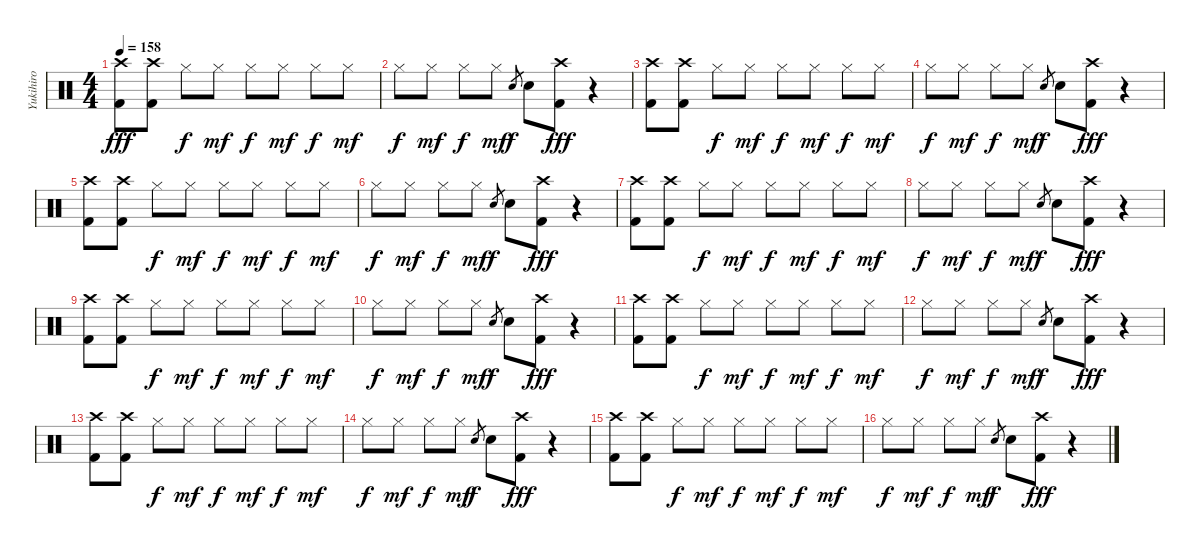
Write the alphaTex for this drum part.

\track ("Yukihiro" "Yukihiro") {instrument percussion}
\staff {score}
\articulation defaults
\ts (4 4)
\tempo 158
\clef neutral
\ks c
("Crash high (hit)" "Kick (hit) 2").8{dy fff} ("Crash high (hit)" "Kick (hit) 2").8 "Hi-Hat (closed)".8{dy f} "Hi-Hat (closed)".8{dy mf} "Hi-Hat (closed)".8{dy f} "Hi-Hat (closed)".8{dy mf} "Hi-Hat (closed)".8{dy f} "Hi-Hat (closed)".8{dy mf} |
"Hi-Hat (closed)".8{dy f} "Hi-Hat (closed)".8{dy mf} "Hi-Hat (closed)".8{dy f} "Hi-Hat (closed)".8{dy mf} "Snare (hit) 2".8{gr dy f} "Snare (hit) 2".8 ("Crash high (hit)" "Kick (hit) 2").8{dy fff} r.4 |
("Crash high (hit)" "Kick (hit) 2").8 ("Crash high (hit)" "Kick (hit) 2").8 "Hi-Hat (closed)".8{dy f} "Hi-Hat (closed)".8{dy mf} "Hi-Hat (closed)".8{dy f} "Hi-Hat (closed)".8{dy mf} "Hi-Hat (closed)".8{dy f} "Hi-Hat (closed)".8{dy mf} |
"Hi-Hat (closed)".8{dy f} "Hi-Hat (closed)".8{dy mf} "Hi-Hat (closed)".8{dy f} "Hi-Hat (closed)".8{dy mf} "Snare (hit) 2".8{gr dy f} "Snare (hit) 2".8 ("Crash high (hit)" "Kick (hit) 2").8{dy fff} r.4 |
("Crash high (hit)" "Kick (hit) 2").8 ("Crash high (hit)" "Kick (hit) 2").8 "Hi-Hat (closed)".8{dy f} "Hi-Hat (closed)".8{dy mf} "Hi-Hat (closed)".8{dy f} "Hi-Hat (closed)".8{dy mf} "Hi-Hat (closed)".8{dy f} "Hi-Hat (closed)".8{dy mf} |
"Hi-Hat (closed)".8{dy f} "Hi-Hat (closed)".8{dy mf} "Hi-Hat (closed)".8{dy f} "Hi-Hat (closed)".8{dy mf} "Snare (hit) 2".8{gr dy f} "Snare (hit) 2".8 ("Crash high (hit)" "Kick (hit) 2").8{dy fff} r.4 |
("Crash high (hit)" "Kick (hit) 2").8 ("Crash high (hit)" "Kick (hit) 2").8 "Hi-Hat (closed)".8{dy f} "Hi-Hat (closed)".8{dy mf} "Hi-Hat (closed)".8{dy f} "Hi-Hat (closed)".8{dy mf} "Hi-Hat (closed)".8{dy f} "Hi-Hat (closed)".8{dy mf} |
"Hi-Hat (closed)".8{dy f} "Hi-Hat (closed)".8{dy mf} "Hi-Hat (closed)".8{dy f} "Hi-Hat (closed)".8{dy mf} "Snare (hit) 2".8{gr dy f} "Snare (hit) 2".8 ("Crash high (hit)" "Kick (hit) 2").8{dy fff} r.4 |
("Crash high (hit)" "Kick (hit) 2").8 ("Crash high (hit)" "Kick (hit) 2").8 "Hi-Hat (closed)".8{dy f} "Hi-Hat (closed)".8{dy mf} "Hi-Hat (closed)".8{dy f} "Hi-Hat (closed)".8{dy mf} "Hi-Hat (closed)".8{dy f} "Hi-Hat (closed)".8{dy mf} |
"Hi-Hat (closed)".8{dy f} "Hi-Hat (closed)".8{dy mf} "Hi-Hat (closed)".8{dy f} "Hi-Hat (closed)".8{dy mf} "Snare (hit) 2".8{gr dy f} "Snare (hit) 2".8 ("Crash high (hit)" "Kick (hit) 2").8{dy fff} r.4 |
("Crash high (hit)" "Kick (hit) 2").8 ("Crash high (hit)" "Kick (hit) 2").8 "Hi-Hat (closed)".8{dy f} "Hi-Hat (closed)".8{dy mf} "Hi-Hat (closed)".8{dy f} "Hi-Hat (closed)".8{dy mf} "Hi-Hat (closed)".8{dy f} "Hi-Hat (closed)".8{dy mf} |
"Hi-Hat (closed)".8{dy f} "Hi-Hat (closed)".8{dy mf} "Hi-Hat (closed)".8{dy f} "Hi-Hat (closed)".8{dy mf} "Snare (hit) 2".8{gr dy f} "Snare (hit) 2".8 ("Crash high (hit)" "Kick (hit) 2").8{dy fff} r.4 |
("Crash high (hit)" "Kick (hit) 2").8 ("Crash high (hit)" "Kick (hit) 2").8 "Hi-Hat (closed)".8{dy f} "Hi-Hat (closed)".8{dy mf} "Hi-Hat (closed)".8{dy f} "Hi-Hat (closed)".8{dy mf} "Hi-Hat (closed)".8{dy f} "Hi-Hat (closed)".8{dy mf} |
"Hi-Hat (closed)".8{dy f} "Hi-Hat (closed)".8{dy mf} "Hi-Hat (closed)".8{dy f} "Hi-Hat (closed)".8{dy mf} "Snare (hit) 2".8{gr dy f} "Snare (hit) 2".8 ("Crash high (hit)" "Kick (hit) 2").8{dy fff} r.4 |
("Crash high (hit)" "Kick (hit) 2").8 ("Crash high (hit)" "Kick (hit) 2").8 "Hi-Hat (closed)".8{dy f} "Hi-Hat (closed)".8{dy mf} "Hi-Hat (closed)".8{dy f} "Hi-Hat (closed)".8{dy mf} "Hi-Hat (closed)".8{dy f} "Hi-Hat (closed)".8{dy mf} |
"Hi-Hat (closed)".8{dy f} "Hi-Hat (closed)".8{dy mf} "Hi-Hat (closed)".8{dy f} "Hi-Hat (closed)".8{dy mf} "Snare (hit) 2".8{gr dy f} "Snare (hit) 2".8 ("Crash high (hit)" "Kick (hit) 2").8{dy fff} r.4
